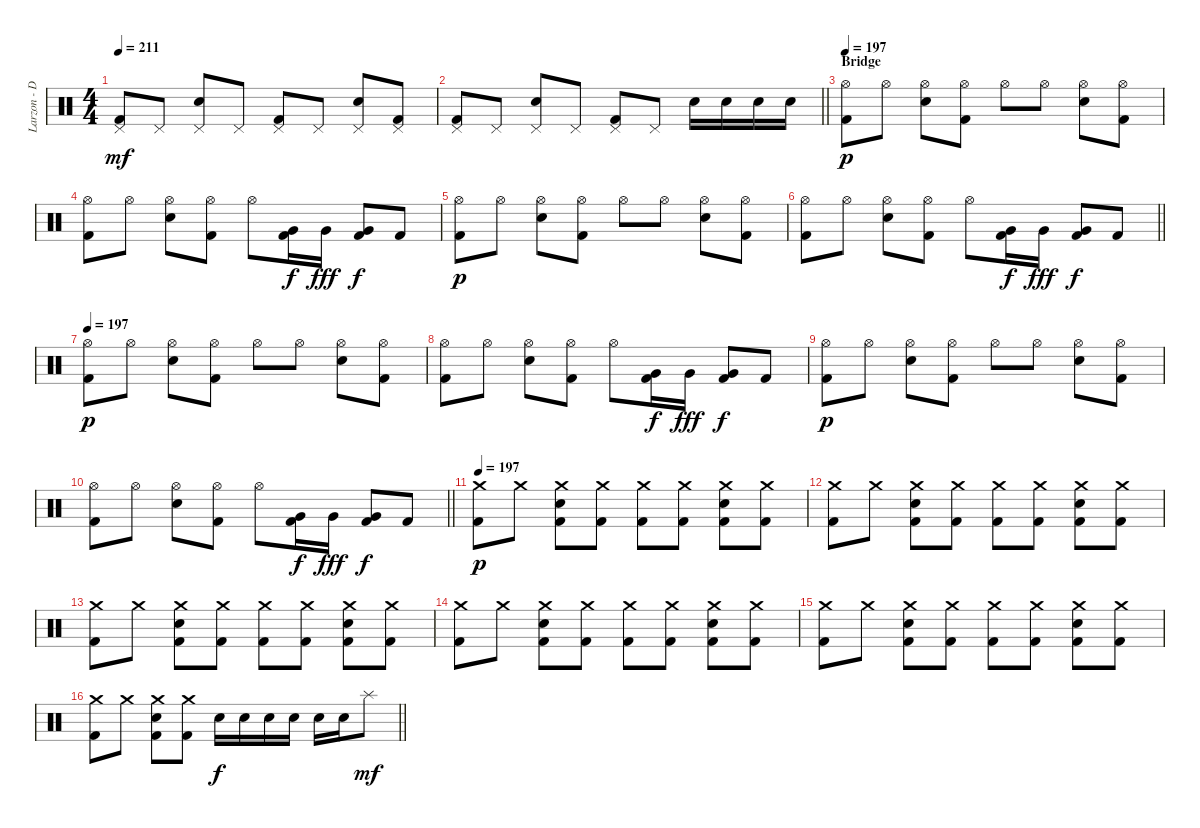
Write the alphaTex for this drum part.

\track ("Larzon - Drums" "Larzon - D") {instrument percussion}
\staff {score}
\articulation defaults
\ts (4 4)
\tempo 211
\clef neutral
\ks c
("Kick (hit) 2" "Pedal Hi-Hat (hit)").8{dy mf} "Pedal Hi-Hat (hit)".8 ("Snare (hit) 2" "Pedal Hi-Hat (hit)").8 "Pedal Hi-Hat (hit)".8 ("Kick (hit) 2" "Pedal Hi-Hat (hit)").8 "Pedal Hi-Hat (hit)".8 ("Snare (hit) 2" "Pedal Hi-Hat (hit)").8 ("Kick (hit) 2" "Pedal Hi-Hat (hit)").8 |
\barLineRight lightlight
("Kick (hit) 2" "Pedal Hi-Hat (hit)").8 "Pedal Hi-Hat (hit)".8 ("Snare (hit) 2" "Pedal Hi-Hat (hit)").8 "Pedal Hi-Hat (hit)".8 ("Kick (hit) 2" "Pedal Hi-Hat (hit)").8 "Pedal Hi-Hat (hit)".8 "Snare (hit) 2".16 "Snare (hit) 2".16 "Snare (hit) 2".16 "Snare (hit) 2".16 |
\section ("" "Bridge")
\tempo 197
("Kick (hit) 2" "Hi-Hat (open)").8{dy p} "Hi-Hat (open)".8 ("Snare (hit) 2" "Hi-Hat (open)").8 ("Kick (hit) 2" "Hi-Hat (open)").8 "Hi-Hat (open)".8 "Hi-Hat (open)".8 ("Snare (hit) 2" "Hi-Hat (open)").8 ("Kick (hit) 2" "Hi-Hat (open)").8 |
("Kick (hit) 2" "Hi-Hat (open)").8 "Hi-Hat (open)".8 ("Snare (hit) 2" "Hi-Hat (open)").8 ("Kick (hit) 2" "Hi-Hat (open)").8 "Hi-Hat (open)".8 ("Very Low Tom (hit)" "Kick (hit) 2").16{dy f} "Very Low Tom (hit)".16{dy fff} ("Very Low Tom (hit)" "Kick (hit) 2").8{dy f} "Kick (hit) 2".8 |
("Kick (hit) 2" "Hi-Hat (open)").8{dy p} "Hi-Hat (open)".8 ("Snare (hit) 2" "Hi-Hat (open)").8 ("Kick (hit) 2" "Hi-Hat (open)").8 "Hi-Hat (open)".8 "Hi-Hat (open)".8 ("Snare (hit) 2" "Hi-Hat (open)").8 ("Kick (hit) 2" "Hi-Hat (open)").8 |
\barLineRight lightlight
("Kick (hit) 2" "Hi-Hat (open)").8 "Hi-Hat (open)".8 ("Snare (hit) 2" "Hi-Hat (open)").8 ("Kick (hit) 2" "Hi-Hat (open)").8 "Hi-Hat (open)".8 ("Very Low Tom (hit)" "Kick (hit) 2").16{dy f} "Very Low Tom (hit)".16{dy fff} ("Very Low Tom (hit)" "Kick (hit) 2").8{dy f} "Kick (hit) 2".8 |
\tempo 197
("Kick (hit) 2" "Hi-Hat (open)").8{dy p} "Hi-Hat (open)".8 ("Snare (hit) 2" "Hi-Hat (open)").8 ("Kick (hit) 2" "Hi-Hat (open)").8 "Hi-Hat (open)".8 "Hi-Hat (open)".8 ("Snare (hit) 2" "Hi-Hat (open)").8 ("Kick (hit) 2" "Hi-Hat (open)").8 |
("Kick (hit) 2" "Hi-Hat (open)").8 "Hi-Hat (open)".8 ("Snare (hit) 2" "Hi-Hat (open)").8 ("Kick (hit) 2" "Hi-Hat (open)").8 "Hi-Hat (open)".8 ("Very Low Tom (hit)" "Kick (hit) 2").16{dy f} "Very Low Tom (hit)".16{dy fff} ("Very Low Tom (hit)" "Kick (hit) 2").8{dy f} "Kick (hit) 2".8 |
("Kick (hit) 2" "Hi-Hat (open)").8{dy p} "Hi-Hat (open)".8 ("Snare (hit) 2" "Hi-Hat (open)").8 ("Kick (hit) 2" "Hi-Hat (open)").8 "Hi-Hat (open)".8 "Hi-Hat (open)".8 ("Snare (hit) 2" "Hi-Hat (open)").8 ("Kick (hit) 2" "Hi-Hat (open)").8 |
\barLineRight lightlight
("Kick (hit) 2" "Hi-Hat (open)").8 "Hi-Hat (open)".8 ("Snare (hit) 2" "Hi-Hat (open)").8 ("Kick (hit) 2" "Hi-Hat (open)").8 "Hi-Hat (open)".8 ("Very Low Tom (hit)" "Kick (hit) 2").16{dy f} "Very Low Tom (hit)".16{dy fff} ("Very Low Tom (hit)" "Kick (hit) 2").8{dy f} "Kick (hit) 2".8 |
\tempo 197
("Kick (hit) 2" "Crash medium (hit)").8{dy p} "Crash medium (hit)".8 ("Snare (hit) 2" "Kick (hit) 2" "Crash medium (hit)").8 ("Kick (hit) 2" "Crash medium (hit)").8 ("Kick (hit) 2" "Crash medium (hit)").8 ("Kick (hit) 2" "Crash medium (hit)").8 ("Snare (hit) 2" "Kick (hit) 2" "Crash medium (hit)").8 ("Kick (hit) 2" "Crash medium (hit)").8 |
("Kick (hit) 2" "Crash medium (hit)").8 "Crash medium (hit)".8 ("Snare (hit) 2" "Kick (hit) 2" "Crash medium (hit)").8 ("Kick (hit) 2" "Crash medium (hit)").8 ("Kick (hit) 2" "Crash medium (hit)").8 ("Kick (hit) 2" "Crash medium (hit)").8 ("Snare (hit) 2" "Kick (hit) 2" "Crash medium (hit)").8 ("Kick (hit) 2" "Crash medium (hit)").8 |
("Kick (hit) 2" "Crash medium (hit)").8 "Crash medium (hit)".8 ("Snare (hit) 2" "Kick (hit) 2" "Crash medium (hit)").8 ("Kick (hit) 2" "Crash medium (hit)").8 ("Kick (hit) 2" "Crash medium (hit)").8 ("Kick (hit) 2" "Crash medium (hit)").8 ("Snare (hit) 2" "Kick (hit) 2" "Crash medium (hit)").8 ("Kick (hit) 2" "Crash medium (hit)").8 |
("Kick (hit) 2" "Crash medium (hit)").8 "Crash medium (hit)".8 ("Snare (hit) 2" "Kick (hit) 2" "Crash medium (hit)").8 ("Kick (hit) 2" "Crash medium (hit)").8 ("Kick (hit) 2" "Crash medium (hit)").8 ("Kick (hit) 2" "Crash medium (hit)").8 ("Snare (hit) 2" "Kick (hit) 2" "Crash medium (hit)").8 ("Kick (hit) 2" "Crash medium (hit)").8 |
("Kick (hit) 2" "Crash medium (hit)").8 "Crash medium (hit)".8 ("Snare (hit) 2" "Kick (hit) 2" "Crash medium (hit)").8 ("Kick (hit) 2" "Crash medium (hit)").8 ("Kick (hit) 2" "Crash medium (hit)").8 ("Kick (hit) 2" "Crash medium (hit)").8 ("Snare (hit) 2" "Kick (hit) 2" "Crash medium (hit)").8 ("Kick (hit) 2" "Crash medium (hit)").8 |
\barLineRight lightlight
("Kick (hit) 2" "Crash medium (hit)").8 "Crash medium (hit)".8 ("Snare (hit) 2" "Kick (hit) 2" "Crash medium (hit)").8 ("Kick (hit) 2" "Crash medium (hit)").8 "Snare (hit) 2".16{dy f} "Snare (hit) 2".16 "Snare (hit) 2".16 "Snare (hit) 2".16 "Snare (hit) 2".16 "Snare (hit) 2".16 "Splash (hit)".8{dy mf}
